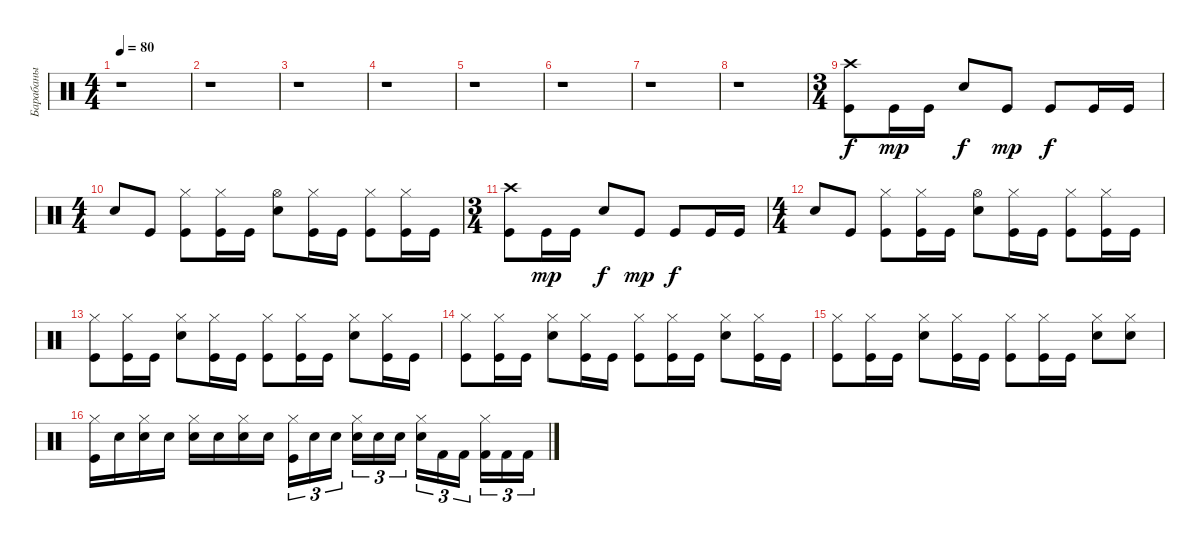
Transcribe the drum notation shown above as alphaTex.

\track ("Барабаны" "Барабаны") {instrument percussion}
\staff {score}
\articulation defaults
\ts (4 4)
\tempo 80
\clef neutral
\ks c
r.1{dy p} |
r.1 |
r.1 |
r.1 |
r.1 |
r.1 |
r.1 |
r.1 |
\ts (3 4)
("Crash high (hit)" "Kick (hit)").8{dy f} "Kick (hit)".16{dy mp} "Kick (hit)".16 "Snare (hit) 2".8{dy f} "Kick (hit)".8{dy mp} "Kick (hit)".8{dy f} "Kick (hit)".16 "Kick (hit)".16 |
\ts (4 4)
"Snare (hit) 2".8 "Kick (hit)".8 ("Hi-Hat (closed)" "Kick (hit)").8 ("Hi-Hat (closed)" "Kick (hit)").16 "Kick (hit)".16 ("Hi-Hat (open)" "Snare (hit) 2").8 ("Hi-Hat (closed)" "Kick (hit)").16 "Kick (hit)".16 ("Hi-Hat (closed)" "Kick (hit)").8 ("Hi-Hat (closed)" "Kick (hit)").16 "Kick (hit)".16 |
\ts (3 4)
("Crash high (hit)" "Kick (hit)").8 "Kick (hit)".16{dy mp} "Kick (hit)".16 "Snare (hit) 2".8{dy f} "Kick (hit)".8{dy mp} "Kick (hit)".8{dy f} "Kick (hit)".16 "Kick (hit)".16 |
\ts (4 4)
"Snare (hit) 2".8 "Kick (hit)".8 ("Hi-Hat (closed)" "Kick (hit)").8 ("Hi-Hat (closed)" "Kick (hit)").16 "Kick (hit)".16 ("Hi-Hat (open)" "Snare (hit) 2").8 ("Hi-Hat (closed)" "Kick (hit)").16 "Kick (hit)".16 ("Hi-Hat (closed)" "Kick (hit)").8 ("Hi-Hat (closed)" "Kick (hit)").16 "Kick (hit)".16 |
("Hi-Hat (closed)" "Kick (hit)").8 ("Hi-Hat (closed)" "Kick (hit)").16 "Kick (hit)".16 ("Hi-Hat (closed)" "Snare (hit) 2").8 ("Hi-Hat (closed)" "Kick (hit)").16 "Kick (hit)".16 ("Hi-Hat (closed)" "Kick (hit)").8 ("Hi-Hat (closed)" "Kick (hit)").16 "Kick (hit)".16 ("Hi-Hat (closed)" "Snare (hit) 2").8 ("Hi-Hat (closed)" "Kick (hit)").16 "Kick (hit)".16 |
("Hi-Hat (closed)" "Kick (hit)").8 ("Hi-Hat (closed)" "Kick (hit)").16 "Kick (hit)".16 ("Hi-Hat (closed)" "Snare (hit) 2").8 ("Hi-Hat (closed)" "Kick (hit)").16 "Kick (hit)".16 ("Hi-Hat (closed)" "Kick (hit)").8 ("Hi-Hat (closed)" "Kick (hit)").16 "Kick (hit)".16 ("Hi-Hat (closed)" "Snare (hit) 2").8 ("Hi-Hat (closed)" "Kick (hit)").16 "Kick (hit)".16 |
("Hi-Hat (closed)" "Kick (hit)").8 ("Hi-Hat (closed)" "Kick (hit)").16 "Kick (hit)".16 ("Hi-Hat (closed)" "Snare (hit) 2").8 ("Hi-Hat (closed)" "Kick (hit)").16 "Kick (hit)".16 ("Hi-Hat (closed)" "Kick (hit)").8 ("Hi-Hat (closed)" "Kick (hit)").16 "Kick (hit)".16 ("Hi-Hat (closed)" "Snare (hit) 2").8 ("Snare (hit) 2" "Hi-Hat (closed)").8 |
("Hi-Hat (closed)" "Kick (hit)").16 "Snare (hit) 2".16 ("Hi-Hat (closed)" "Snare (hit) 2").16 "Snare (hit) 2".16 ("Hi-Hat (closed)" "Snare (hit) 2").16 "Snare (hit) 2".16 ("Hi-Hat (closed)" "Snare (hit) 2").16 "Snare (hit) 2".16 ("Hi-Hat (closed)" "Kick (hit)").16{tu (3 2)} "Snare (hit) 2".16{tu (3 2)} "Snare (hit) 2".16{tu (3 2)} ("Hi-Hat (closed)" "Snare (hit) 2").16{tu (3 2)} "Snare (hit) 2".16{tu (3 2)} "Snare (hit) 2".16{tu (3 2)} ("Hi-Hat (closed)" "Snare (hit) 2").16{tu (3 2)} "Kick (hit) 2".16{tu (3 2)} "Kick (hit) 2".16{tu (3 2)} ("Hi-Hat (closed)" "Kick (hit) 2").16{tu (3 2)} "Kick (hit) 2".16{tu (3 2)} "Kick (hit) 2".16{tu (3 2)}
